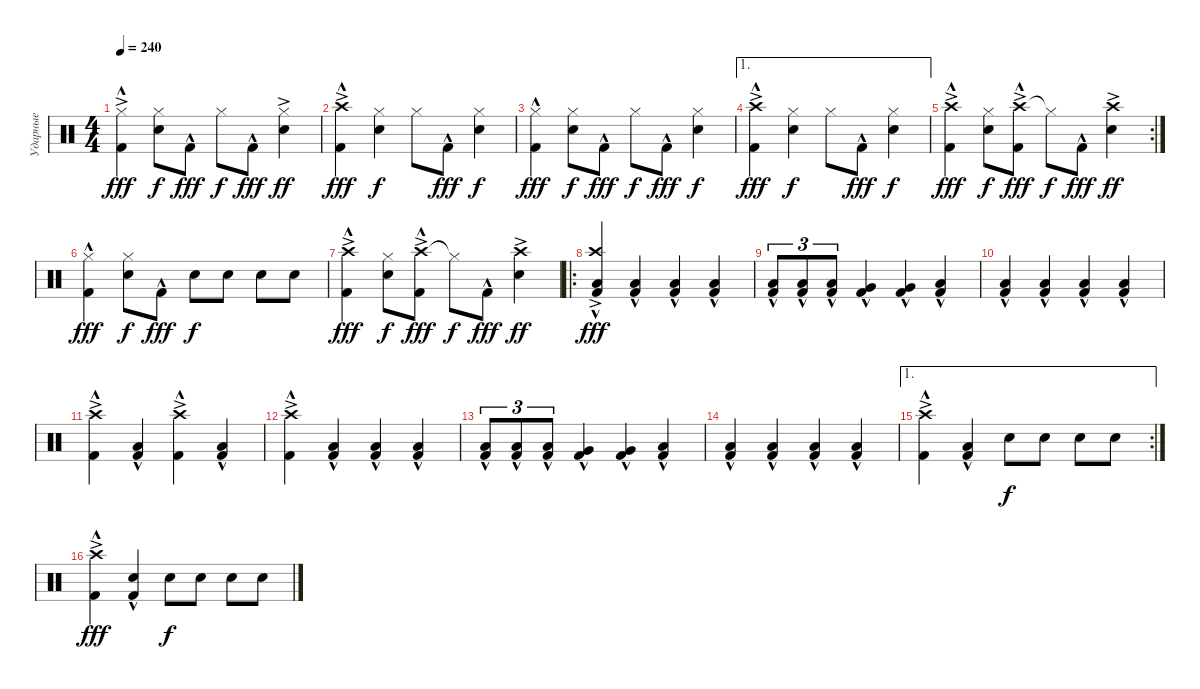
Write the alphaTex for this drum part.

\track ("Ударные" "Ударные") {instrument percussion}
\staff {score}
\articulation defaults
\ts (4 4)
\tempo 240
\clef neutral
\ks c
("Hi-Hat (closed)"{ac} "Kick (hit) 2"{hac}).4{dy fff} ("Hi-Hat (closed)" "Snare (hit) 2").8{dy f} "Kick (hit) 2"{hac}.8{dy fff} "Hi-Hat (closed)".8{dy f} "Kick (hit) 2"{hac}.8{dy fff} ("Hi-Hat (closed)"{ac} "Snare (hit) 2").4{dy ff} |
("Crash high (hit)"{ac} "Kick (hit) 2"{hac}).4{dy fff} ("Hi-Hat (closed)" "Snare (hit) 2").4{dy f} "Hi-Hat (closed)".8 "Kick (hit) 2"{hac}.8{dy fff} ("Hi-Hat (closed)" "Snare (hit) 2").4{dy f} |
("Hi-Hat (closed)" "Kick (hit) 2"{hac}).4{dy fff} ("Hi-Hat (closed)" "Snare (hit) 2").8{dy f} "Kick (hit) 2"{hac}.8{dy fff} "Hi-Hat (closed)".8{dy f} "Kick (hit) 2"{hac}.8{dy fff} ("Hi-Hat (closed)" "Snare (hit) 2").4{dy f} |
\ae 1
("Crash high (hit)"{ac} "Kick (hit) 2"{hac}).4{dy fff} ("Hi-Hat (closed)" "Snare (hit) 2").4{dy f} "Hi-Hat (closed)".8 "Kick (hit) 2"{hac}.8{dy fff} ("Hi-Hat (closed)" "Snare (hit) 2").4{dy f} |
\rc 2
("Crash high (hit)"{ac} "Kick (hit) 2"{hac}).4{dy fff} ("Hi-Hat (closed)" "Snare (hit) 2").8{dy f} ("Crash high (hit)"{ac} "Kick (hit) 2"{hac}).8{dy fff} "Hi-Hat (closed)"{t}.8{dy f} "Kick (hit) 2"{hac}.8{dy fff} ("Crash high (hit)"{ac} "Snare (hit) 2").4{dy ff} |
("Hi-Hat (closed)" "Kick (hit) 2"{hac}).4{dy fff} ("Hi-Hat (closed)" "Snare (hit) 2").8{dy f} "Kick (hit) 2"{hac}.8{dy fff} "Snare (hit) 2".8{dy f} "Snare (hit) 2".8 "Snare (hit) 2".8 "Snare (hit) 2".8 |
("Crash high (hit)"{ac} "Kick (hit) 2"{hac}).4{dy fff} ("Hi-Hat (closed)" "Snare (hit) 2").8{dy f} ("Crash high (hit)"{ac} "Kick (hit) 2"{hac}).8{dy fff} "Hi-Hat (closed)"{t}.8{dy f} "Kick (hit) 2"{hac}.8{dy fff} ("Crash high (hit)"{ac} "Snare (hit) 2").4{dy ff} |
\ro
("Crash high (hit)"{ac} "Low Floor Tom (hit)"{hac} "Kick (hit) 2"{hac}).4{dy fff} ("Low Floor Tom (hit)"{hac} "Kick (hit) 2"{hac}).4 ("Low Floor Tom (hit)"{hac} "Kick (hit) 2"{hac}).4 ("Low Floor Tom (hit)"{hac} "Kick (hit) 2"{hac}).4 |
("Low Tom (hit)"{hac} "Kick (hit) 2"{hac}).8{tu (3 2)} ("Low Tom (hit)"{hac} "Kick (hit) 2"{hac}).8{tu (3 2)} ("Low Tom (hit)"{hac} "Kick (hit) 2"{hac}).8{tu (3 2)} ("Very Low Tom (hit)"{hac} "Kick (hit) 2"{hac}).4 ("Very Low Tom (hit)"{hac} "Kick (hit) 2"{hac}).4 ("Low Floor Tom (hit)"{hac} "Kick (hit) 2"{hac}).4 |
("Low Floor Tom (hit)"{hac} "Kick (hit) 2"{hac}).4 ("Low Floor Tom (hit)"{hac} "Kick (hit) 2"{hac}).4 ("Low Floor Tom (hit)"{hac} "Kick (hit) 2"{hac}).4 ("Low Floor Tom (hit)"{hac} "Kick (hit) 2"{hac}).4 |
("Crash high (hit)"{ac} "Kick (hit) 2"{hac}).4 ("Low Floor Tom (hit)"{hac} "Kick (hit) 2"{hac}).4 ("Crash high (hit)"{ac} "Kick (hit) 2"{hac}).4 ("Low Floor Tom (hit)"{hac} "Kick (hit) 2"{hac}).4 |
("Crash high (hit)"{ac} "Kick (hit) 2"{hac}).4 ("Low Floor Tom (hit)"{hac} "Kick (hit) 2"{hac}).4 ("Low Floor Tom (hit)"{hac} "Kick (hit) 2"{hac}).4 ("Low Floor Tom (hit)"{hac} "Kick (hit) 2"{hac}).4 |
("Low Tom (hit)"{hac} "Kick (hit) 2"{hac}).8{tu (3 2)} ("Low Tom (hit)"{hac} "Kick (hit) 2"{hac}).8{tu (3 2)} ("Low Tom (hit)"{hac} "Kick (hit) 2"{hac}).8{tu (3 2)} ("Very Low Tom (hit)"{hac} "Kick (hit) 2"{hac}).4 ("Very Low Tom (hit)"{hac} "Kick (hit) 2"{hac}).4 ("Low Floor Tom (hit)"{hac} "Kick (hit) 2"{hac}).4 |
("Low Floor Tom (hit)"{hac} "Kick (hit) 2"{hac}).4 ("Low Floor Tom (hit)"{hac} "Kick (hit) 2"{hac}).4 ("Low Floor Tom (hit)"{hac} "Kick (hit) 2"{hac}).4 ("Low Floor Tom (hit)"{hac} "Kick (hit) 2"{hac}).4 |
\ae 1
\rc 2
("Crash high (hit)"{ac} "Kick (hit) 2"{hac}).4 ("Low Floor Tom (hit)"{hac} "Kick (hit) 2"{hac}).4 "Snare (hit) 2".8{dy f} "Snare (hit) 2".8 "Snare (hit) 2".8 "Snare (hit) 2".8 |
("Crash high (hit)"{ac} "Kick (hit) 2"{hac}).4{dy fff} ("Snare (hit) 2"{hac} "Kick (hit) 2"{hac}).4 "Snare (hit) 2".8{dy f} "Snare (hit) 2".8 "Snare (hit) 2".8 "Snare (hit) 2".8
